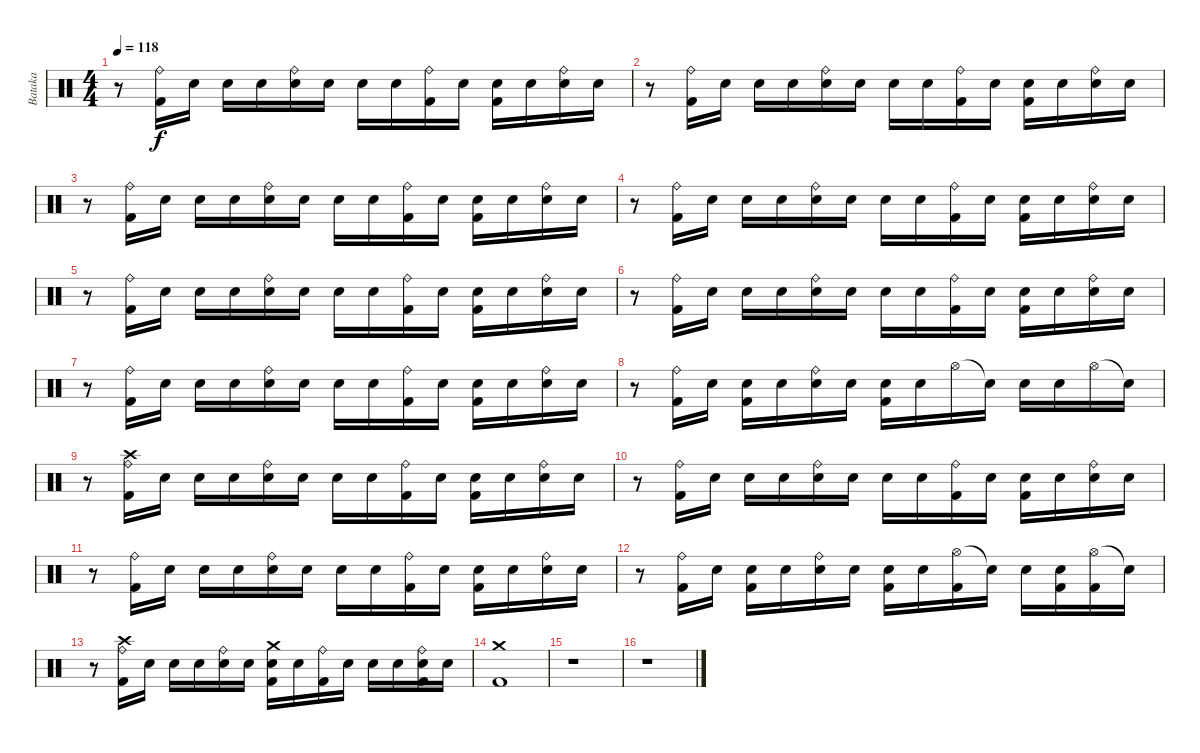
\track ("Bataka" "Bataka") {instrument percussion}
\staff {score}
\articulation defaults
\ts (4 4)
\tempo 118
\clef neutral
\ks c
r.8{dy f} ("Ride (bell)" "Kick (hit) 2").16 "Snare (hit)"{x}.16 "Snare (hit)"{x}.16 "Snare (hit)"{x}.16 ("Ride (bell)" "Snare (hit) 2").16 "Snare (hit)"{x}.16 "Snare (hit)"{x}.16 "Snare (hit)"{x}.16 ("Ride (bell)" "Kick (hit) 2").16 "Snare (hit)"{x}.16 ("Snare (hit)"{x} "Kick (hit) 2").16 "Snare (hit)"{x}.16 ("Ride (bell)" "Snare (hit) 2").16 "Snare (hit)"{x}.16 |
r.8 ("Ride (bell)" "Kick (hit) 2").16 "Snare (hit)"{x}.16 "Snare (hit)"{x}.16 "Snare (hit)"{x}.16 ("Ride (bell)" "Snare (hit) 2").16 "Snare (hit)"{x}.16 "Snare (hit)"{x}.16 "Snare (hit)"{x}.16 ("Ride (bell)" "Kick (hit) 2").16 "Snare (hit)"{x}.16 ("Snare (hit)"{x} "Kick (hit) 2").16 "Snare (hit)"{x}.16 ("Ride (bell)" "Snare (hit) 2").16 "Snare (hit)"{x}.16 |
r.8 ("Ride (bell)" "Kick (hit) 2").16 "Snare (hit)"{x}.16 "Snare (hit)"{x}.16 "Snare (hit)"{x}.16 ("Ride (bell)" "Snare (hit) 2").16 "Snare (hit)"{x}.16 "Snare (hit)"{x}.16 "Snare (hit)"{x}.16 ("Ride (bell)" "Kick (hit) 2").16 "Snare (hit)"{x}.16 ("Snare (hit)"{x} "Kick (hit) 2").16 "Snare (hit)"{x}.16 ("Ride (bell)" "Snare (hit) 2").16 "Snare (hit)"{x}.16 |
r.8 ("Ride (bell)" "Kick (hit) 2").16 "Snare (hit)"{x}.16 "Snare (hit)"{x}.16 "Snare (hit)"{x}.16 ("Ride (bell)" "Snare (hit) 2").16 "Snare (hit)"{x}.16 "Snare (hit)"{x}.16 "Snare (hit)"{x}.16 ("Ride (bell)" "Kick (hit) 2").16 "Snare (hit)"{x}.16 ("Snare (hit)"{x} "Kick (hit) 2").16 "Snare (hit)"{x}.16 ("Ride (bell)" "Snare (hit) 2").16 "Snare (hit)"{x}.16 |
r.8 ("Ride (bell)" "Kick (hit) 2").16 "Snare (hit)"{x}.16 "Snare (hit)"{x}.16 "Snare (hit)"{x}.16 ("Ride (bell)" "Snare (hit) 2").16 "Snare (hit)"{x}.16 "Snare (hit)"{x}.16 "Snare (hit)"{x}.16 ("Ride (bell)" "Kick (hit) 2").16 "Snare (hit)"{x}.16 ("Snare (hit)"{x} "Kick (hit) 2").16 "Snare (hit)"{x}.16 ("Ride (bell)" "Snare (hit) 2").16 "Snare (hit)"{x}.16 |
r.8 ("Ride (bell)" "Kick (hit) 2").16 "Snare (hit)"{x}.16 "Snare (hit)"{x}.16 "Snare (hit)"{x}.16 ("Ride (bell)" "Snare (hit) 2").16 "Snare (hit)"{x}.16 "Snare (hit)"{x}.16 "Snare (hit)"{x}.16 ("Ride (bell)" "Kick (hit) 2").16 "Snare (hit)"{x}.16 ("Snare (hit)"{x} "Kick (hit) 2").16 "Snare (hit)"{x}.16 ("Ride (bell)" "Snare (hit) 2").16 "Snare (hit)"{x}.16 |
r.8 ("Ride (bell)" "Kick (hit) 2").16 "Snare (hit)"{x}.16 "Snare (hit)"{x}.16 "Snare (hit)"{x}.16 ("Ride (bell)" "Snare (hit) 2").16 "Snare (hit)"{x}.16 "Snare (hit)"{x}.16 "Snare (hit)"{x}.16 ("Ride (bell)" "Kick (hit) 2").16 "Snare (hit)"{x}.16 ("Snare (hit)"{x} "Kick (hit) 2").16 "Snare (hit)"{x}.16 ("Ride (bell)" "Snare (hit) 2").16 "Snare (hit)"{x}.16 |
r.8 ("Ride (bell)" "Kick (hit) 2").16 "Snare (hit)"{x}.16 ("Snare (hit)"{x} "Kick (hit) 2").16 "Snare (hit)"{x}.16 ("Ride (bell)" "Snare (hit) 2").16 "Snare (hit)"{x}.16 ("Snare (hit)"{x} "Kick (hit) 2").16 "Snare (hit)"{x}.16 "Hi-Hat (open)".16 "Snare (hit)"{t}.16 "Snare (hit)"{x}.16 "Snare (hit)"{x}.16 "Hi-Hat (open)".16 "Snare (hit)"{t}.16 |
r.8 ("Ride (bell)" "Kick (hit) 2" "Crash high (hit)").16 "Snare (hit)"{x}.16 "Snare (hit)"{x}.16 "Snare (hit)"{x}.16 ("Ride (bell)" "Snare (hit) 2").16 "Snare (hit)"{x}.16 "Snare (hit)"{x}.16 "Snare (hit)"{x}.16 ("Ride (bell)" "Kick (hit) 2").16 "Snare (hit)"{x}.16 ("Snare (hit)"{x} "Kick (hit) 2").16 "Snare (hit)"{x}.16 ("Ride (bell)" "Snare (hit) 2").16 "Snare (hit)"{x}.16 |
r.8 ("Ride (bell)" "Kick (hit) 2").16 "Snare (hit)"{x}.16 "Snare (hit)"{x}.16 "Snare (hit)"{x}.16 ("Ride (bell)" "Snare (hit) 2").16 "Snare (hit)"{x}.16 "Snare (hit)"{x}.16 "Snare (hit)"{x}.16 ("Ride (bell)" "Kick (hit) 2").16 "Snare (hit)"{x}.16 ("Snare (hit)"{x} "Kick (hit) 2").16 "Snare (hit)"{x}.16 ("Ride (bell)" "Snare (hit) 2").16 "Snare (hit)"{x}.16 |
r.8 ("Ride (bell)" "Kick (hit) 2").16 "Snare (hit)"{x}.16 "Snare (hit)"{x}.16 "Snare (hit)"{x}.16 ("Ride (bell)" "Snare (hit) 2").16 "Snare (hit)"{x}.16 "Snare (hit)"{x}.16 "Snare (hit)"{x}.16 ("Ride (bell)" "Kick (hit) 2").16 "Snare (hit)"{x}.16 ("Snare (hit)"{x} "Kick (hit) 2").16 "Snare (hit)"{x}.16 ("Ride (bell)" "Snare (hit) 2").16 "Snare (hit)"{x}.16 |
r.8 ("Ride (bell)" "Kick (hit) 2").16 "Snare (hit)"{x}.16 ("Snare (hit)"{x} "Kick (hit) 2").16 "Snare (hit)"{x}.16 ("Ride (bell)" "Snare (hit) 2").16 "Snare (hit)"{x}.16 ("Snare (hit)"{x} "Kick (hit) 2").16 "Snare (hit)"{x}.16 ("Hi-Hat (open)" "Kick (hit) 2").16 "Snare (hit)"{t}.16 "Snare (hit)"{x}.16 ("Snare (hit)"{x} "Kick (hit) 2").16 ("Hi-Hat (open)" "Kick (hit) 2").16 "Snare (hit)"{t}.16 |
r.8 ("Ride (bell)" "Kick (hit) 2" "Crash high (hit)").16 "Snare (hit)"{x}.16 "Snare (hit)"{x}.16 "Snare (hit)"{x}.16 ("Ride (bell)" "Snare (hit) 2").16 "Snare (hit)"{x}.16 ("Snare (hit)"{x} "Crash medium (hit)" "Kick (hit) 2").16 "Snare (hit)"{x}.16 ("Ride (bell)" "Kick (hit) 2").16 "Snare (hit)"{x}.16 "Snare (hit)"{x}.16 "Snare (hit)"{x}.16 ("Ride (bell)" "Snare (hit) 2" "Kick (hit) 2").16 "Snare (hit)"{x}.16 |
("Crash medium (hit)" "Kick (hit) 2").1 |
r.1 |
r.1
